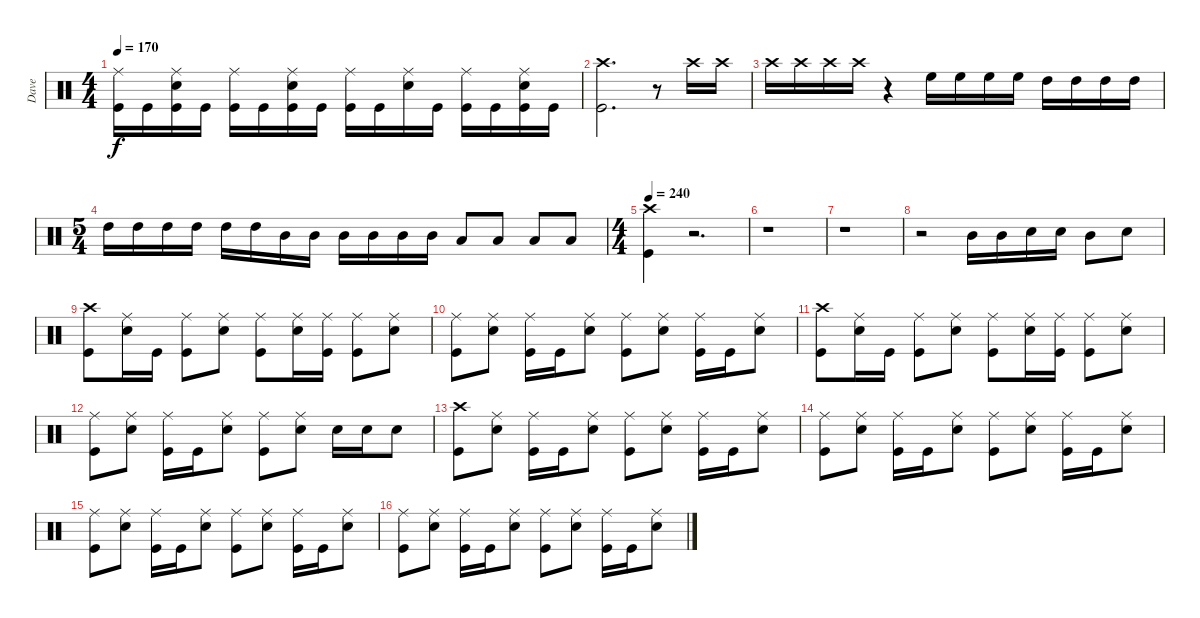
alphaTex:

\track ("Dave" "Dave") {instrument percussion}
\staff {score}
\articulation defaults
\ts (4 4)
\tempo 170
\clef neutral
\ks c
("Ride (middle)" "Kick (hit)").16{dy f} "Kick (hit)".16 ("Ride (middle)" "Snare (hit) 2" "Kick (hit)").16 "Kick (hit)".16 ("Ride (middle)" "Kick (hit)").16 "Kick (hit)".16 ("Ride (middle)" "Snare (hit) 2" "Kick (hit)").16 "Kick (hit)".16 ("Ride (middle)" "Kick (hit)").16 "Kick (hit)".16 ("Ride (middle)" "Snare (hit) 2").16 "Kick (hit)".16 ("Ride (middle)" "Kick (hit)").16 "Kick (hit)".16 ("Ride (middle)" "Snare (hit) 2" "Kick (hit)").16 "Kick (hit)".16 |
("Crash high (hit)" "Kick (hit)").2{d} r.8 "Crash high (hit)".16 "Crash high (hit)".16 |
"Crash high (hit)".16 "Crash high (hit)".16 "Crash high (hit)".16 "Crash high (hit)".16 r.4 "High Floor Tom (hit)".16 "High Floor Tom (hit)".16 "High Floor Tom (hit)".16 "High Floor Tom (hit)".16 "High Tom (hit)".16 "High Tom (hit)".16 "High Tom (hit)".16 "High Tom (hit)".16 |
\ts (5 4)
"High Tom (hit)".16 "High Tom (hit)".16 "High Tom (hit)".16 "High Tom (hit)".16 "High Tom (hit)".16 "High Tom (hit)".16 "Mid Tom (hit)".16 "Mid Tom (hit)".16 "Mid Tom (hit)".16 "Mid Tom (hit)".16 "Mid Tom (hit)".16 "Mid Tom (hit)".16 "Low Tom (hit)".8 "Low Tom (hit)".8 "Low Tom (hit)".8 "Low Tom (hit)".8 |
\ts (4 4)
\tempo 240
("Crash high (hit)" "Kick (hit)").4 r.2{d} |
r.1 |
r.1 |
r.2 "Mid Tom (hit)".16 "Mid Tom (hit)".16 "Snare (hit) 2".16 "Snare (hit) 2".16 "Mid Tom (hit)".8 "Snare (hit) 2".8 |
("Crash high (hit)" "Kick (hit)").8 ("Ride (middle)" "Snare (hit) 2").16 "Kick (hit)".16 ("Ride (middle)" "Kick (hit)").8 ("Ride (middle)" "Snare (hit) 2").8 ("Ride (middle)" "Kick (hit)").8 ("Ride (middle)" "Snare (hit) 2").16 ("Ride (middle)" "Kick (hit)").16 ("Ride (middle)" "Kick (hit)").8 ("Ride (middle)" "Snare (hit) 2").8 |
("Ride (middle)" "Kick (hit)").8 ("Ride (middle)" "Snare (hit) 2").8 ("Ride (middle)" "Kick (hit)").16 "Kick (hit)".16 ("Ride (middle)" "Snare (hit) 2").8 ("Ride (middle)" "Kick (hit)").8 ("Ride (middle)" "Snare (hit) 2").8 ("Ride (middle)" "Kick (hit)").16 "Kick (hit)".16 ("Ride (middle)" "Snare (hit) 2").8 |
("Crash high (hit)" "Kick (hit)").8 ("Ride (middle)" "Snare (hit) 2").16 "Kick (hit)".16 ("Ride (middle)" "Kick (hit)").8 ("Ride (middle)" "Snare (hit) 2").8 ("Ride (middle)" "Kick (hit)").8 ("Ride (middle)" "Snare (hit) 2").16 ("Ride (middle)" "Kick (hit)").16 ("Ride (middle)" "Kick (hit)").8 ("Ride (middle)" "Snare (hit) 2").8 |
("Ride (middle)" "Kick (hit)").8 ("Ride (middle)" "Snare (hit) 2").8 ("Ride (middle)" "Kick (hit)").16 "Kick (hit)".16 ("Ride (middle)" "Snare (hit) 2").8 ("Ride (middle)" "Kick (hit)").8 ("Ride (middle)" "Snare (hit) 2").8 "Snare (hit) 2".16 "Snare (hit) 2".16 "Snare (hit) 2".8 |
("Crash high (hit)" "Kick (hit)").8 ("Ride (middle)" "Snare (hit) 2").8 ("Ride (middle)" "Kick (hit)").16 "Kick (hit)".16 ("Ride (middle)" "Snare (hit) 2").8 ("Ride (middle)" "Kick (hit)").8 ("Ride (middle)" "Snare (hit) 2").8 ("Ride (middle)" "Kick (hit)").16 "Kick (hit)".16 ("Ride (middle)" "Snare (hit) 2").8 |
("Ride (middle)" "Kick (hit)").8 ("Ride (middle)" "Snare (hit) 2").8 ("Ride (middle)" "Kick (hit)").16 "Kick (hit)".16 ("Ride (middle)" "Snare (hit) 2").8 ("Ride (middle)" "Kick (hit)").8 ("Ride (middle)" "Snare (hit) 2").8 ("Ride (middle)" "Kick (hit)").16 "Kick (hit)".16 ("Ride (middle)" "Snare (hit) 2").8 |
("Ride (middle)" "Kick (hit)").8 ("Ride (middle)" "Snare (hit) 2").8 ("Ride (middle)" "Kick (hit)").16 "Kick (hit)".16 ("Ride (middle)" "Snare (hit) 2").8 ("Ride (middle)" "Kick (hit)").8 ("Ride (middle)" "Snare (hit) 2").8 ("Ride (middle)" "Kick (hit)").16 "Kick (hit)".16 ("Ride (middle)" "Snare (hit) 2").8 |
("Ride (middle)" "Kick (hit)").8 ("Ride (middle)" "Snare (hit) 2").8 ("Ride (middle)" "Kick (hit)").16 "Kick (hit)".16 ("Ride (middle)" "Snare (hit) 2").8 ("Ride (middle)" "Kick (hit)").8 ("Ride (middle)" "Snare (hit) 2").8 ("Ride (middle)" "Kick (hit)").16 "Kick (hit)".16 ("Ride (middle)" "Snare (hit) 2").8
